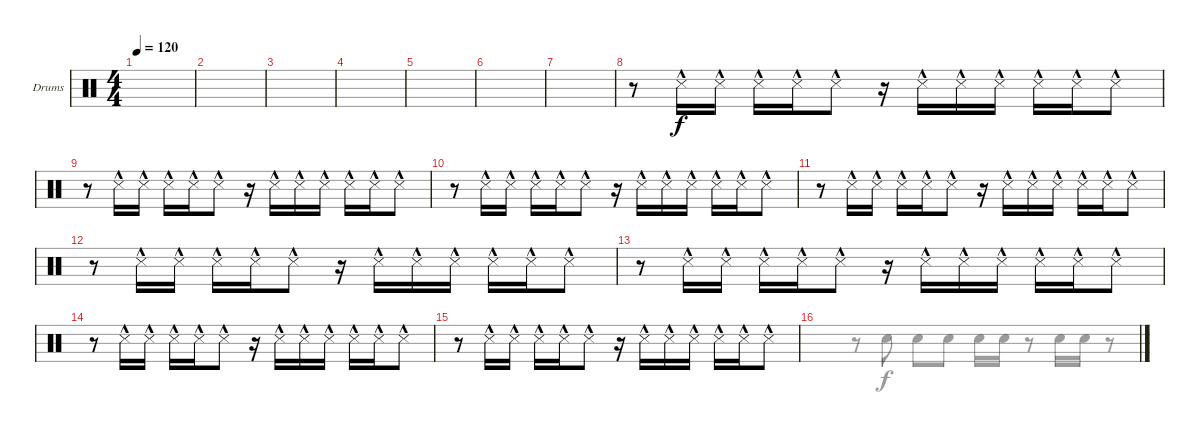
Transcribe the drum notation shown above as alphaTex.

\defaultSystemsLayout 4
\bracketExtendMode groupsimilarinstruments
\firstSystemTrackNameOrientation horizontal
\otherSystemsTrackNameOrientation horizontal
\track ("Drumkit" "Drums") {instrument percussion}
\staff {score}
\articulation defaults
\voice
\ts (4 4)
\tempo 120
\clef neutral
\scale
0.333333
\ks c
|
\scale
0.333333 |
\scale
0.333333 |
\scale
0.333333 |
\scale
0.333333 |
\scale
0.333333 |
\scale
0.333333 |
\scale
0.333333 r.8 "Snare (side stick) 3"{hac}.16 "Snare (side stick) 3"{hac}.16 "Snare (side stick) 3"{hac}.16 "Snare (side stick) 3"{hac}.16 "Snare (side stick) 3"{hac}.8 r.16 "Snare (side stick) 3"{hac}.16 "Snare (side stick) 3"{hac}.16 "Snare (side stick) 3"{hac}.16 "Snare (side stick) 3"{hac}.16 "Snare (side stick) 3"{hac}.16 "Snare (side stick) 3"{hac}.8 |
\scale
0.333333 r.8 "Snare (side stick) 3"{hac}.16 "Snare (side stick) 3"{hac}.16 "Snare (side stick) 3"{hac}.16 "Snare (side stick) 3"{hac}.16 "Snare (side stick) 3"{hac}.8 r.16 "Snare (side stick) 3"{hac}.16 "Snare (side stick) 3"{hac}.16 "Snare (side stick) 3"{hac}.16 "Snare (side stick) 3"{hac}.16 "Snare (side stick) 3"{hac}.16 "Snare (side stick) 3"{hac}.8 |
\scale
0.333333 r.8 "Snare (side stick) 3"{hac}.16 "Snare (side stick) 3"{hac}.16 "Snare (side stick) 3"{hac}.16 "Snare (side stick) 3"{hac}.16 "Snare (side stick) 3"{hac}.8 r.16 "Snare (side stick) 3"{hac}.16 "Snare (side stick) 3"{hac}.16 "Snare (side stick) 3"{hac}.16 "Snare (side stick) 3"{hac}.16 "Snare (side stick) 3"{hac}.16 "Snare (side stick) 3"{hac}.8 |
\scale
0.333333 r.8 "Snare (side stick) 3"{hac}.16 "Snare (side stick) 3"{hac}.16 "Snare (side stick) 3"{hac}.16 "Snare (side stick) 3"{hac}.16 "Snare (side stick) 3"{hac}.8 r.16 "Snare (side stick) 3"{hac}.16 "Snare (side stick) 3"{hac}.16 "Snare (side stick) 3"{hac}.16 "Snare (side stick) 3"{hac}.16 "Snare (side stick) 3"{hac}.16 "Snare (side stick) 3"{hac}.8 |
\scale
0.333333 r.8 "Snare (side stick) 3"{hac}.16 "Snare (side stick) 3"{hac}.16 "Snare (side stick) 3"{hac}.16 "Snare (side stick) 3"{hac}.16 "Snare (side stick) 3"{hac}.8 r.16 "Snare (side stick) 3"{hac}.16 "Snare (side stick) 3"{hac}.16 "Snare (side stick) 3"{hac}.16 "Snare (side stick) 3"{hac}.16 "Snare (side stick) 3"{hac}.16 "Snare (side stick) 3"{hac}.8 |
\scale
0.333333 r.8 "Snare (side stick) 3"{hac}.16 "Snare (side stick) 3"{hac}.16 "Snare (side stick) 3"{hac}.16 "Snare (side stick) 3"{hac}.16 "Snare (side stick) 3"{hac}.8 r.16 "Snare (side stick) 3"{hac}.16 "Snare (side stick) 3"{hac}.16 "Snare (side stick) 3"{hac}.16 "Snare (side stick) 3"{hac}.16 "Snare (side stick) 3"{hac}.16 "Snare (side stick) 3"{hac}.8 |
\scale
0.333333 r.8 "Snare (side stick) 3"{hac}.16 "Snare (side stick) 3"{hac}.16 "Snare (side stick) 3"{hac}.16 "Snare (side stick) 3"{hac}.16 "Snare (side stick) 3"{hac}.8 r.16 "Snare (side stick) 3"{hac}.16 "Snare (side stick) 3"{hac}.16 "Snare (side stick) 3"{hac}.16 "Snare (side stick) 3"{hac}.16 "Snare (side stick) 3"{hac}.16 "Snare (side stick) 3"{hac}.8 |
\scale
0.333333 r.8 "Snare (side stick) 3"{hac}.16 "Snare (side stick) 3"{hac}.16 "Snare (side stick) 3"{hac}.16 "Snare (side stick) 3"{hac}.16 "Snare (side stick) 3"{hac}.8 r.16 "Snare (side stick) 3"{hac}.16 "Snare (side stick) 3"{hac}.16 "Snare (side stick) 3"{hac}.16 "Snare (side stick) 3"{hac}.16 "Snare (side stick) 3"{hac}.16 "Snare (side stick) 3"{hac}.8 |
\scale
0.333333
\voice
\clef neutral
\ottava regular
\simile none
\scale
0.333333
\ks c
|
\scale
0.333333 |
\scale
0.333333 |
\scale
0.333333 |
\scale
0.333333 |
\scale
0.333333 |
\scale
0.333333 |
\scale
0.333333 |
\scale
0.333333 |
\scale
0.333333 |
\scale
0.333333 |
\scale
0.333333 |
\scale
0.333333 |
\scale
0.333333 |
\scale
0.333333 |
\scale
0.333333 r.8 "Snare (hit) 2".8 "Snare (hit) 2".8 "Snare (hit) 2".8 "Snare (hit) 2".16 "Snare (hit) 2".16 r.8 "Snare (hit) 2".16 "Snare (hit) 2".16 r.8
